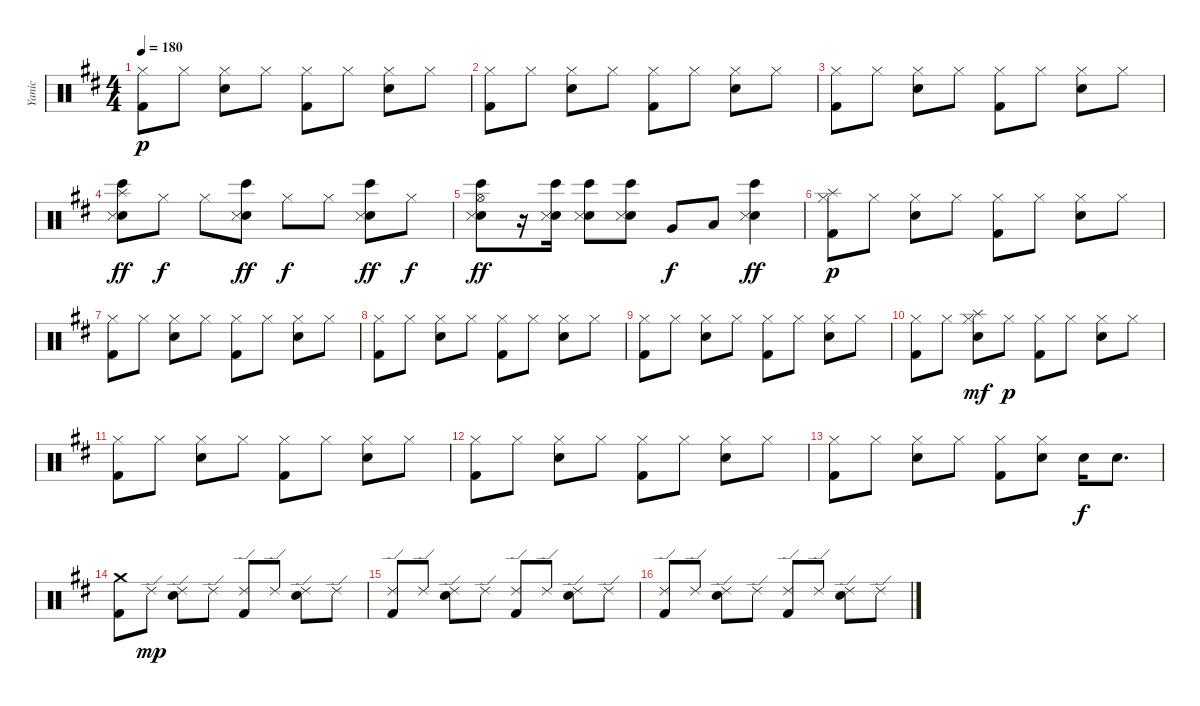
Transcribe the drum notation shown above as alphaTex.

\track ("Yanic" "Yanic") {instrument percussion}
\staff {score}
\articulation defaults
\ts (4 4)
\tempo 180
\clef neutral
\ks d
("Kick (hit) 2" "Hi-Hat (closed)").8{dy p} "Hi-Hat (closed)".8 ("Electric Snare (hit)" "Hi-Hat (closed)").8 "Hi-Hat (closed)".8 ("Kick (hit) 2" "Hi-Hat (closed)").8 "Hi-Hat (closed)".8 ("Electric Snare (hit)" "Hi-Hat (closed)").8 "Hi-Hat (closed)".8 |
("Kick (hit) 2" "Hi-Hat (closed)").8 "Hi-Hat (closed)".8 ("Electric Snare (hit)" "Hi-Hat (closed)").8 "Hi-Hat (closed)".8 ("Kick (hit) 2" "Hi-Hat (closed)").8 "Hi-Hat (closed)".8 ("Electric Snare (hit)" "Hi-Hat (closed)").8 "Hi-Hat (closed)".8 |
("Kick (hit) 2" "Hi-Hat (closed)").8 "Hi-Hat (closed)".8 ("Electric Snare (hit)" "Hi-Hat (closed)").8 "Hi-Hat (closed)".8 ("Kick (hit) 2" "Hi-Hat (closed)").8 "Hi-Hat (closed)".8 ("Electric Snare (hit)" "Hi-Hat (closed)").8 "Hi-Hat (closed)".8 |
("Bongo High (hit)" "Splash (hit)" "Electric Snare (hit)" "Snare (side stick) 3").8{dy ff} "Hi-Hat (closed)".8{dy f} "Hi-Hat (closed)".8 ("Bongo High (hit)" "Electric Snare (hit)" "Snare (side stick) 3").8{dy ff} "Hi-Hat (closed)".8{dy f} "Hi-Hat (closed)".8 ("Bongo High (hit)" "Electric Snare (hit)" "Snare (side stick) 3").8{dy ff} "Hi-Hat (closed)".8{dy f} |
("Bongo High (hit)" "Hi-Hat (open)" "Electric Snare (hit)" "Snare (side stick) 3").8{dy ff} r.16 ("Bongo High (hit)" "Electric Snare (hit)" "Snare (side stick) 3").16 ("Bongo High (hit)" "Electric Snare (hit)" "Snare (side stick) 3").8 ("Bongo High (hit)" "Electric Snare (hit)" "Snare (side stick) 3").8 "Very Low Tom (hit)".8{dy f} "Low Floor Tom (hit)".8 ("Bongo High (hit)" "Electric Snare (hit)" "Snare (side stick) 3").4{dy ff} |
("Kick (hit) 2" "Hi-Hat (closed)" "Splash (hit)").8{dy p} "Hi-Hat (closed)".8 ("Electric Snare (hit)" "Hi-Hat (closed)").8 "Hi-Hat (closed)".8 ("Kick (hit) 2" "Hi-Hat (closed)").8 "Hi-Hat (closed)".8 ("Electric Snare (hit)" "Hi-Hat (closed)").8 "Hi-Hat (closed)".8 |
("Kick (hit) 2" "Hi-Hat (closed)").8 "Hi-Hat (closed)".8 ("Electric Snare (hit)" "Hi-Hat (closed)").8 "Hi-Hat (closed)".8 ("Kick (hit) 2" "Hi-Hat (closed)").8 "Hi-Hat (closed)".8 ("Electric Snare (hit)" "Hi-Hat (closed)").8 "Hi-Hat (closed)".8 |
("Kick (hit) 2" "Hi-Hat (closed)").8 "Hi-Hat (closed)".8 ("Electric Snare (hit)" "Hi-Hat (closed)").8 "Hi-Hat (closed)".8 ("Kick (hit) 2" "Hi-Hat (closed)").8 "Hi-Hat (closed)".8 ("Electric Snare (hit)" "Hi-Hat (closed)").8 "Hi-Hat (closed)".8 |
("Kick (hit) 2" "Hi-Hat (closed)").8 "Hi-Hat (closed)".8 ("Electric Snare (hit)" "Hi-Hat (closed)").8 "Hi-Hat (closed)".8 ("Kick (hit) 2" "Hi-Hat (closed)").8 "Hi-Hat (closed)".8 ("Electric Snare (hit)" "Hi-Hat (closed)").8 "Hi-Hat (closed)".8 |
("Kick (hit) 2" "Hi-Hat (closed)").8 "Hi-Hat (closed)".8 ("Electric Snare (hit)" "Hi-Hat (closed)" "Splash (hit)").8{dy mf} "Hi-Hat (closed)".8{dy p} ("Kick (hit) 2" "Hi-Hat (closed)").8 "Hi-Hat (closed)".8 ("Electric Snare (hit)" "Hi-Hat (closed)").8 "Hi-Hat (closed)".8 |
("Kick (hit) 2" "Hi-Hat (closed)").8 "Hi-Hat (closed)".8 ("Electric Snare (hit)" "Hi-Hat (closed)").8 "Hi-Hat (closed)".8 ("Kick (hit) 2" "Hi-Hat (closed)").8 "Hi-Hat (closed)".8 ("Electric Snare (hit)" "Hi-Hat (closed)").8 "Hi-Hat (closed)".8 |
("Kick (hit) 2" "Hi-Hat (closed)").8 "Hi-Hat (closed)".8 ("Electric Snare (hit)" "Hi-Hat (closed)").8 "Hi-Hat (closed)".8 ("Kick (hit) 2" "Hi-Hat (closed)").8 "Hi-Hat (closed)".8 ("Electric Snare (hit)" "Hi-Hat (closed)").8 "Hi-Hat (closed)".8 |
("Kick (hit) 2" "Hi-Hat (closed)").8 "Hi-Hat (closed)".8 ("Electric Snare (hit)" "Hi-Hat (closed)").8 "Hi-Hat (closed)".8 ("Kick (hit) 2" "Hi-Hat (closed)").8 ("Electric Snare (hit)" "Hi-Hat (closed)").8 "Electric Snare (hit)".16{dy f} "Electric Snare (hit)".8{d} |
("Kick (hit) 2" "Crash medium (hit)").8 "Ride (edge) 2".8{dy mp} ("Electric Snare (hit)" "Ride (edge) 2").8 "Ride (edge) 2".8 ("Kick (hit) 2" "Ride (edge) 2").8 "Ride (edge) 2".8 ("Electric Snare (hit)" "Ride (edge) 2").8 "Ride (edge) 2".8 |
("Kick (hit) 2" "Ride (edge) 2").8 "Ride (edge) 2".8 ("Electric Snare (hit)" "Ride (edge) 2").8 "Ride (edge) 2".8 ("Kick (hit) 2" "Ride (edge) 2").8 "Ride (edge) 2".8 ("Electric Snare (hit)" "Ride (edge) 2").8 "Ride (edge) 2".8 |
("Kick (hit) 2" "Ride (edge) 2").8 "Ride (edge) 2".8 ("Electric Snare (hit)" "Ride (edge) 2").8 "Ride (edge) 2".8 ("Kick (hit) 2" "Ride (edge) 2").8 "Ride (edge) 2".8 ("Electric Snare (hit)" "Ride (edge) 2").8 "Ride (edge) 2".8
